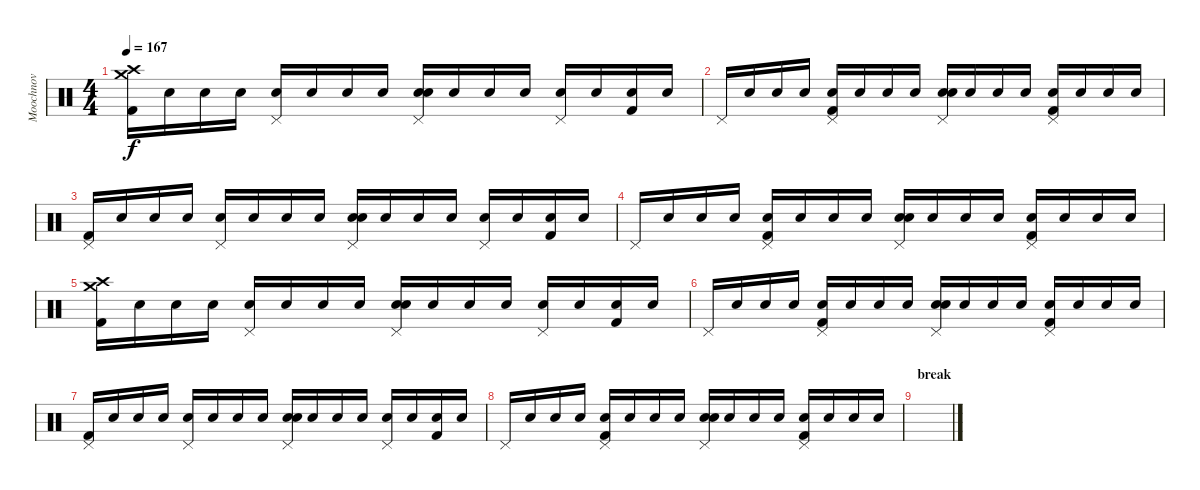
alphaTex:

\track ("Moochnov" "Moochnov") {instrument percussion}
\staff {score}
\articulation defaults
\ts (4 4)
\tempo 167
\clef neutral
\ks c
("Kick (hit) 2" "Crash medium (hit)" "Crash high (hit)").16{dy f} "Snare (hit)"{x}.16 "Snare (hit)"{x}.16 "Snare (hit)"{x}.16 ("Snare (hit)"{x} "Pedal Hi-Hat (hit)").16 "Snare (hit)"{x}.16 "Snare (hit)"{x}.16 "Snare (hit)"{x}.16 ("Snare (hit) 2" "Snare (hit)"{x} "Pedal Hi-Hat (hit)").16 "Snare (hit)"{x}.16 "Snare (hit)"{x}.16 "Snare (hit)"{x}.16 ("Snare (hit)"{x} "Pedal Hi-Hat (hit)").16 "Snare (hit)"{x}.16 ("Kick (hit) 2" "Snare (hit)"{x}).16 "Snare (hit)"{x}.16 |
"Pedal Hi-Hat (hit)".16 "Snare (hit)"{x}.16 "Snare (hit)"{x}.16 "Snare (hit)"{x}.16 ("Kick (hit) 2" "Snare (hit)"{x} "Pedal Hi-Hat (hit)").16 "Snare (hit)"{x}.16 "Snare (hit)"{x}.16 "Snare (hit)"{x}.16 ("Snare (hit) 2" "Snare (hit)"{x} "Pedal Hi-Hat (hit)").16 "Snare (hit)"{x}.16 "Snare (hit)"{x}.16 "Snare (hit)"{x}.16 ("Kick (hit) 2" "Snare (hit)"{x} "Pedal Hi-Hat (hit)").16 "Snare (hit)"{x}.16 "Snare (hit)"{x}.16 "Snare (hit)"{x}.16 |
("Kick (hit) 2" "Pedal Hi-Hat (hit)").16 "Snare (hit)"{x}.16 "Snare (hit)"{x}.16 "Snare (hit)"{x}.16 ("Snare (hit)"{x} "Pedal Hi-Hat (hit)").16 "Snare (hit)"{x}.16 "Snare (hit)"{x}.16 "Snare (hit)"{x}.16 ("Snare (hit) 2" "Snare (hit)"{x} "Pedal Hi-Hat (hit)").16 "Snare (hit)"{x}.16 "Snare (hit)"{x}.16 "Snare (hit)"{x}.16 ("Snare (hit)"{x} "Pedal Hi-Hat (hit)").16 "Snare (hit)"{x}.16 ("Kick (hit) 2" "Snare (hit)"{x}).16 "Snare (hit)"{x}.16 |
"Pedal Hi-Hat (hit)".16 "Snare (hit)"{x}.16 "Snare (hit)"{x}.16 "Snare (hit)"{x}.16 ("Kick (hit) 2" "Snare (hit)"{x} "Pedal Hi-Hat (hit)").16 "Snare (hit)"{x}.16 "Snare (hit)"{x}.16 "Snare (hit)"{x}.16 ("Snare (hit) 2" "Snare (hit)"{x} "Pedal Hi-Hat (hit)").16 "Snare (hit)"{x}.16 "Snare (hit)"{x}.16 "Snare (hit)"{x}.16 ("Kick (hit) 2" "Snare (hit)"{x} "Pedal Hi-Hat (hit)").16 "Snare (hit)"{x}.16 "Snare (hit)"{x}.16 "Snare (hit)"{x}.16 |
("Kick (hit) 2" "Crash medium (hit)" "Crash high (hit)").16 "Snare (hit)"{x}.16 "Snare (hit)"{x}.16 "Snare (hit)"{x}.16 ("Snare (hit)"{x} "Pedal Hi-Hat (hit)").16 "Snare (hit)"{x}.16 "Snare (hit)"{x}.16 "Snare (hit)"{x}.16 ("Snare (hit) 2" "Snare (hit)"{x} "Pedal Hi-Hat (hit)").16 "Snare (hit)"{x}.16 "Snare (hit)"{x}.16 "Snare (hit)"{x}.16 ("Snare (hit)"{x} "Pedal Hi-Hat (hit)").16 "Snare (hit)"{x}.16 ("Kick (hit) 2" "Snare (hit)"{x}).16 "Snare (hit)"{x}.16 |
"Pedal Hi-Hat (hit)".16 "Snare (hit)"{x}.16 "Snare (hit)"{x}.16 "Snare (hit)"{x}.16 ("Kick (hit) 2" "Snare (hit)"{x} "Pedal Hi-Hat (hit)").16 "Snare (hit)"{x}.16 "Snare (hit)"{x}.16 "Snare (hit)"{x}.16 ("Snare (hit) 2" "Snare (hit)"{x} "Pedal Hi-Hat (hit)").16 "Snare (hit)"{x}.16 "Snare (hit)"{x}.16 "Snare (hit)"{x}.16 ("Kick (hit) 2" "Snare (hit)"{x} "Pedal Hi-Hat (hit)").16 "Snare (hit)"{x}.16 "Snare (hit)"{x}.16 "Snare (hit)"{x}.16 |
("Kick (hit) 2" "Pedal Hi-Hat (hit)").16 "Snare (hit)"{x}.16 "Snare (hit)"{x}.16 "Snare (hit)"{x}.16 ("Snare (hit)"{x} "Pedal Hi-Hat (hit)").16 "Snare (hit)"{x}.16 "Snare (hit)"{x}.16 "Snare (hit)"{x}.16 ("Snare (hit) 2" "Snare (hit)"{x} "Pedal Hi-Hat (hit)").16 "Snare (hit)"{x}.16 "Snare (hit)"{x}.16 "Snare (hit)"{x}.16 ("Snare (hit)"{x} "Pedal Hi-Hat (hit)").16 "Snare (hit)"{x}.16 ("Kick (hit) 2" "Snare (hit)"{x}).16 "Snare (hit)"{x}.16 |
"Pedal Hi-Hat (hit)".16 "Snare (hit)"{x}.16 "Snare (hit)"{x}.16 "Snare (hit)"{x}.16 ("Kick (hit) 2" "Snare (hit)"{x} "Pedal Hi-Hat (hit)").16 "Snare (hit)"{x}.16 "Snare (hit)"{x}.16 "Snare (hit)"{x}.16 ("Snare (hit) 2" "Snare (hit)"{x} "Pedal Hi-Hat (hit)").16 "Snare (hit)"{x}.16 "Snare (hit)"{x}.16 "Snare (hit)"{x}.16 ("Kick (hit) 2" "Snare (hit)"{x} "Pedal Hi-Hat (hit)").16 "Snare (hit)"{x}.16 "Snare (hit)"{x}.16 "Snare (hit)"{x}.16 |
\section ("" "break")
